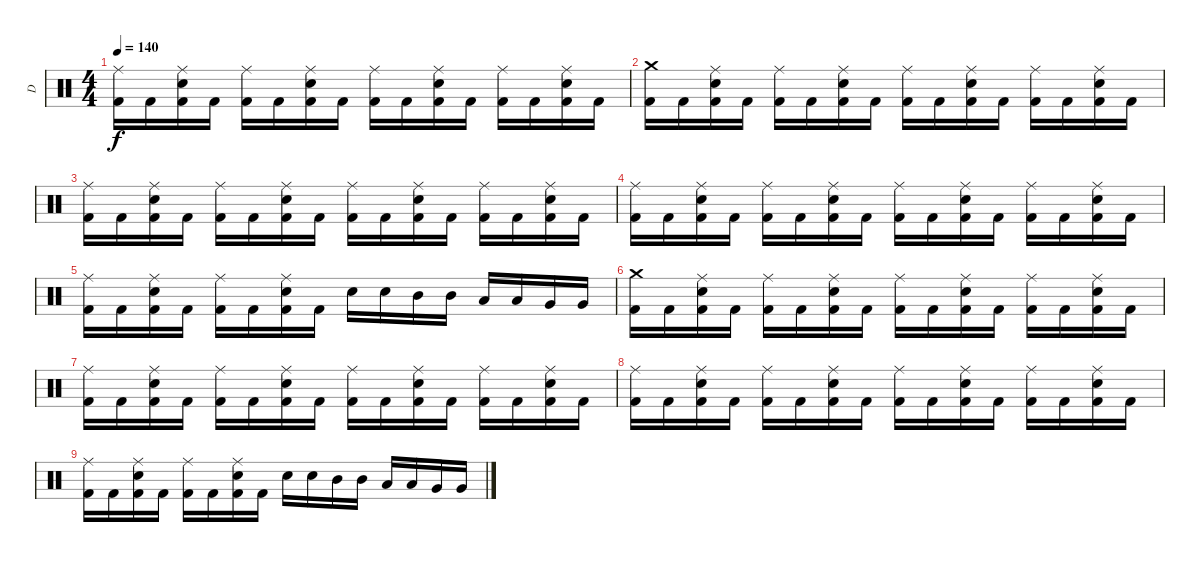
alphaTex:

\track ("D" "D") {instrument percussion}
\staff {score}
\articulation defaults
\ts (4 4)
\tempo 140
\clef neutral
\ks c
("Ride (middle)" "Kick (hit) 2").16{dy f} "Kick (hit) 2".16 ("Ride (middle)" "Electric Snare (hit)" "Kick (hit) 2").16 "Kick (hit) 2".16 ("Ride (middle)" "Kick (hit) 2").16 "Kick (hit) 2".16 ("Ride (middle)" "Electric Snare (hit)" "Kick (hit) 2").16 "Kick (hit) 2".16 ("Ride (middle)" "Kick (hit) 2").16 "Kick (hit) 2".16 ("Ride (middle)" "Electric Snare (hit)" "Kick (hit) 2").16 "Kick (hit) 2".16 ("Ride (middle)" "Kick (hit) 2").16 "Kick (hit) 2".16 ("Ride (middle)" "Electric Snare (hit)" "Kick (hit) 2").16 "Kick (hit) 2".16 |
("Crash medium (hit)" "Kick (hit) 2").16 "Kick (hit) 2".16 ("Ride (middle)" "Electric Snare (hit)" "Kick (hit) 2").16 "Kick (hit) 2".16 ("Ride (middle)" "Kick (hit) 2").16 "Kick (hit) 2".16 ("Ride (middle)" "Electric Snare (hit)" "Kick (hit) 2").16 "Kick (hit) 2".16 ("Ride (middle)" "Kick (hit) 2").16 "Kick (hit) 2".16 ("Ride (middle)" "Electric Snare (hit)" "Kick (hit) 2").16 "Kick (hit) 2".16 ("Ride (middle)" "Kick (hit) 2").16 "Kick (hit) 2".16 ("Ride (middle)" "Electric Snare (hit)" "Kick (hit) 2").16 "Kick (hit) 2".16 |
("Ride (middle)" "Kick (hit) 2").16 "Kick (hit) 2".16 ("Ride (middle)" "Electric Snare (hit)" "Kick (hit) 2").16 "Kick (hit) 2".16 ("Ride (middle)" "Kick (hit) 2").16 "Kick (hit) 2".16 ("Ride (middle)" "Electric Snare (hit)" "Kick (hit) 2").16 "Kick (hit) 2".16 ("Ride (middle)" "Kick (hit) 2").16 "Kick (hit) 2".16 ("Ride (middle)" "Electric Snare (hit)" "Kick (hit) 2").16 "Kick (hit) 2".16 ("Ride (middle)" "Kick (hit) 2").16 "Kick (hit) 2".16 ("Ride (middle)" "Electric Snare (hit)" "Kick (hit) 2").16 "Kick (hit) 2".16 |
("Ride (middle)" "Kick (hit) 2").16 "Kick (hit) 2".16 ("Ride (middle)" "Electric Snare (hit)" "Kick (hit) 2").16 "Kick (hit) 2".16 ("Ride (middle)" "Kick (hit) 2").16 "Kick (hit) 2".16 ("Ride (middle)" "Electric Snare (hit)" "Kick (hit) 2").16 "Kick (hit) 2".16 ("Ride (middle)" "Kick (hit) 2").16 "Kick (hit) 2".16 ("Ride (middle)" "Electric Snare (hit)" "Kick (hit) 2").16 "Kick (hit) 2".16 ("Ride (middle)" "Kick (hit) 2").16 "Kick (hit) 2".16 ("Ride (middle)" "Electric Snare (hit)" "Kick (hit) 2").16 "Kick (hit) 2".16 |
("Ride (middle)" "Kick (hit) 2").16 "Kick (hit) 2".16 ("Ride (middle)" "Electric Snare (hit)" "Kick (hit) 2").16 "Kick (hit) 2".16 ("Ride (middle)" "Kick (hit) 2").16 "Kick (hit) 2".16 ("Ride (middle)" "Electric Snare (hit)" "Kick (hit) 2").16 "Kick (hit) 2".16 "Electric Snare (hit)".16 "Electric Snare (hit)".16 "Mid Tom (hit)".16 "Mid Tom (hit)".16 "Low Tom (hit)".16 "Low Tom (hit)".16 "Very Low Tom (hit)".16 "Very Low Tom (hit)".16 |
("Crash medium (hit)" "Kick (hit) 2").16 "Kick (hit) 2".16 ("Ride (middle)" "Electric Snare (hit)" "Kick (hit) 2").16 "Kick (hit) 2".16 ("Ride (middle)" "Kick (hit) 2").16 "Kick (hit) 2".16 ("Ride (middle)" "Electric Snare (hit)" "Kick (hit) 2").16 "Kick (hit) 2".16 ("Ride (middle)" "Kick (hit) 2").16 "Kick (hit) 2".16 ("Ride (middle)" "Electric Snare (hit)" "Kick (hit) 2").16 "Kick (hit) 2".16 ("Ride (middle)" "Kick (hit) 2").16 "Kick (hit) 2".16 ("Ride (middle)" "Electric Snare (hit)" "Kick (hit) 2").16 "Kick (hit) 2".16 |
("Ride (middle)" "Kick (hit) 2").16 "Kick (hit) 2".16 ("Ride (middle)" "Electric Snare (hit)" "Kick (hit) 2").16 "Kick (hit) 2".16 ("Ride (middle)" "Kick (hit) 2").16 "Kick (hit) 2".16 ("Ride (middle)" "Electric Snare (hit)" "Kick (hit) 2").16 "Kick (hit) 2".16 ("Ride (middle)" "Kick (hit) 2").16 "Kick (hit) 2".16 ("Ride (middle)" "Electric Snare (hit)" "Kick (hit) 2").16 "Kick (hit) 2".16 ("Ride (middle)" "Kick (hit) 2").16 "Kick (hit) 2".16 ("Ride (middle)" "Electric Snare (hit)" "Kick (hit) 2").16 "Kick (hit) 2".16 |
("Ride (middle)" "Kick (hit) 2").16 "Kick (hit) 2".16 ("Ride (middle)" "Electric Snare (hit)" "Kick (hit) 2").16 "Kick (hit) 2".16 ("Ride (middle)" "Kick (hit) 2").16 "Kick (hit) 2".16 ("Ride (middle)" "Electric Snare (hit)" "Kick (hit) 2").16 "Kick (hit) 2".16 ("Ride (middle)" "Kick (hit) 2").16 "Kick (hit) 2".16 ("Ride (middle)" "Electric Snare (hit)" "Kick (hit) 2").16 "Kick (hit) 2".16 ("Ride (middle)" "Kick (hit) 2").16 "Kick (hit) 2".16 ("Ride (middle)" "Electric Snare (hit)" "Kick (hit) 2").16 "Kick (hit) 2".16 |
("Ride (middle)" "Kick (hit) 2").16 "Kick (hit) 2".16 ("Ride (middle)" "Electric Snare (hit)" "Kick (hit) 2").16 "Kick (hit) 2".16 ("Ride (middle)" "Kick (hit) 2").16 "Kick (hit) 2".16 ("Ride (middle)" "Electric Snare (hit)" "Kick (hit) 2").16 "Kick (hit) 2".16 "Electric Snare (hit)".16 "Electric Snare (hit)".16 "Mid Tom (hit)".16 "Mid Tom (hit)".16 "Low Tom (hit)".16 "Low Tom (hit)".16 "Very Low Tom (hit)".16 "Very Low Tom (hit)".16
